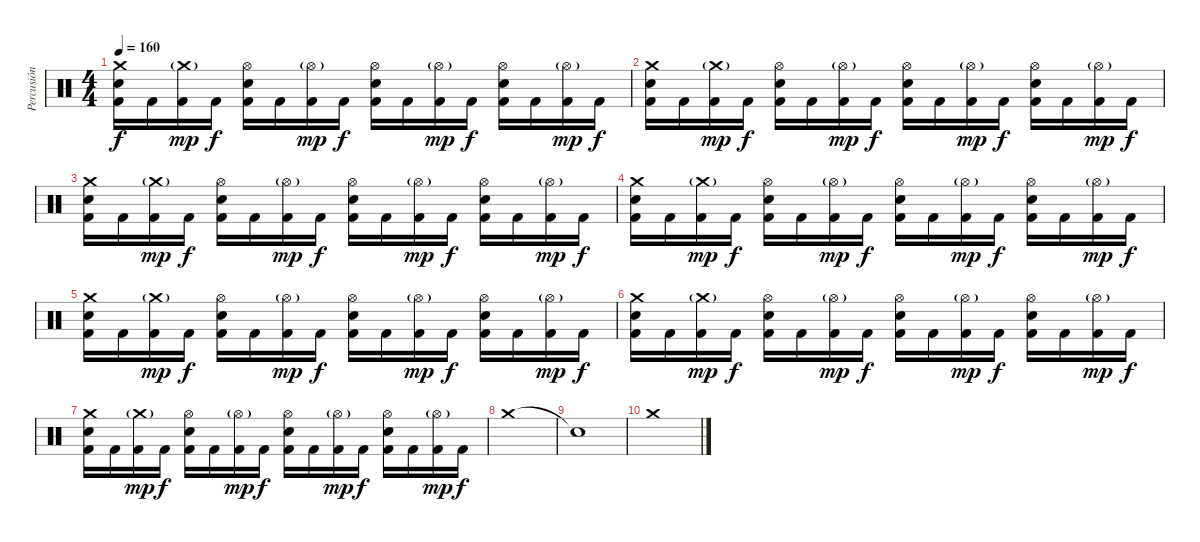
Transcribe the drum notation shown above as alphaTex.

\track ("Percusión" "Percusión") {instrument percussion}
\staff {score}
\articulation defaults
\ts (4 4)
\tempo 160
\clef neutral
\ks c
("Crash medium (hit)" "Electric Snare (hit)" "Kick (hit) 2").16{dy f} "Kick (hit) 2".16 ("Crash medium (hit)"{g} "Kick (hit) 2").16{dy mp} "Kick (hit) 2".16{dy f} ("Hi-Hat (open)" "Electric Snare (hit)" "Kick (hit) 2").16 "Kick (hit) 2".16 ("Hi-Hat (open)"{g} "Kick (hit) 2").16{dy mp} "Kick (hit) 2".16{dy f} ("Hi-Hat (open)" "Electric Snare (hit)" "Kick (hit) 2").16 "Kick (hit) 2".16 ("Hi-Hat (open)"{g} "Kick (hit) 2").16{dy mp} "Kick (hit) 2".16{dy f} ("Hi-Hat (open)" "Electric Snare (hit)" "Kick (hit) 2").16 "Kick (hit) 2".16 ("Hi-Hat (open)"{g} "Kick (hit) 2").16{dy mp} "Kick (hit) 2".16{dy f} |
("Crash medium (hit)" "Electric Snare (hit)" "Kick (hit) 2").16 "Kick (hit) 2".16 ("Crash medium (hit)"{g} "Kick (hit) 2").16{dy mp} "Kick (hit) 2".16{dy f} ("Hi-Hat (open)" "Electric Snare (hit)" "Kick (hit) 2").16 "Kick (hit) 2".16 ("Hi-Hat (open)"{g} "Kick (hit) 2").16{dy mp} "Kick (hit) 2".16{dy f} ("Hi-Hat (open)" "Electric Snare (hit)" "Kick (hit) 2").16 "Kick (hit) 2".16 ("Hi-Hat (open)"{g} "Kick (hit) 2").16{dy mp} "Kick (hit) 2".16{dy f} ("Hi-Hat (open)" "Electric Snare (hit)" "Kick (hit) 2").16 "Kick (hit) 2".16 ("Hi-Hat (open)"{g} "Kick (hit) 2").16{dy mp} "Kick (hit) 2".16{dy f} |
("Crash medium (hit)" "Electric Snare (hit)" "Kick (hit) 2").16 "Kick (hit) 2".16 ("Crash medium (hit)"{g} "Kick (hit) 2").16{dy mp} "Kick (hit) 2".16{dy f} ("Hi-Hat (open)" "Electric Snare (hit)" "Kick (hit) 2").16 "Kick (hit) 2".16 ("Hi-Hat (open)"{g} "Kick (hit) 2").16{dy mp} "Kick (hit) 2".16{dy f} ("Hi-Hat (open)" "Electric Snare (hit)" "Kick (hit) 2").16 "Kick (hit) 2".16 ("Hi-Hat (open)"{g} "Kick (hit) 2").16{dy mp} "Kick (hit) 2".16{dy f} ("Hi-Hat (open)" "Electric Snare (hit)" "Kick (hit) 2").16 "Kick (hit) 2".16 ("Hi-Hat (open)"{g} "Kick (hit) 2").16{dy mp} "Kick (hit) 2".16{dy f} |
("Crash medium (hit)" "Electric Snare (hit)" "Kick (hit) 2").16 "Kick (hit) 2".16 ("Crash medium (hit)"{g} "Kick (hit) 2").16{dy mp} "Kick (hit) 2".16{dy f} ("Hi-Hat (open)" "Electric Snare (hit)" "Kick (hit) 2").16 "Kick (hit) 2".16 ("Hi-Hat (open)"{g} "Kick (hit) 2").16{dy mp} "Kick (hit) 2".16{dy f} ("Hi-Hat (open)" "Electric Snare (hit)" "Kick (hit) 2").16 "Kick (hit) 2".16 ("Hi-Hat (open)"{g} "Kick (hit) 2").16{dy mp} "Kick (hit) 2".16{dy f} ("Hi-Hat (open)" "Electric Snare (hit)" "Kick (hit) 2").16 "Kick (hit) 2".16 ("Hi-Hat (open)"{g} "Kick (hit) 2").16{dy mp} "Kick (hit) 2".16{dy f} |
("Crash medium (hit)" "Electric Snare (hit)" "Kick (hit) 2").16 "Kick (hit) 2".16 ("Crash medium (hit)"{g} "Kick (hit) 2").16{dy mp} "Kick (hit) 2".16{dy f} ("Hi-Hat (open)" "Electric Snare (hit)" "Kick (hit) 2").16 "Kick (hit) 2".16 ("Hi-Hat (open)"{g} "Kick (hit) 2").16{dy mp} "Kick (hit) 2".16{dy f} ("Hi-Hat (open)" "Electric Snare (hit)" "Kick (hit) 2").16 "Kick (hit) 2".16 ("Hi-Hat (open)"{g} "Kick (hit) 2").16{dy mp} "Kick (hit) 2".16{dy f} ("Hi-Hat (open)" "Electric Snare (hit)" "Kick (hit) 2").16 "Kick (hit) 2".16 ("Hi-Hat (open)"{g} "Kick (hit) 2").16{dy mp} "Kick (hit) 2".16{dy f} |
("Crash medium (hit)" "Electric Snare (hit)" "Kick (hit) 2").16 "Kick (hit) 2".16 ("Crash medium (hit)"{g} "Kick (hit) 2").16{dy mp} "Kick (hit) 2".16{dy f} ("Hi-Hat (open)" "Electric Snare (hit)" "Kick (hit) 2").16 "Kick (hit) 2".16 ("Hi-Hat (open)"{g} "Kick (hit) 2").16{dy mp} "Kick (hit) 2".16{dy f} ("Hi-Hat (open)" "Electric Snare (hit)" "Kick (hit) 2").16 "Kick (hit) 2".16 ("Hi-Hat (open)"{g} "Kick (hit) 2").16{dy mp} "Kick (hit) 2".16{dy f} ("Hi-Hat (open)" "Electric Snare (hit)" "Kick (hit) 2").16 "Kick (hit) 2".16 ("Hi-Hat (open)"{g} "Kick (hit) 2").16{dy mp} "Kick (hit) 2".16{dy f} |
("Crash medium (hit)" "Electric Snare (hit)" "Kick (hit) 2").16 "Kick (hit) 2".16 ("Crash medium (hit)"{g} "Kick (hit) 2").16{dy mp} "Kick (hit) 2".16{dy f} ("Hi-Hat (open)" "Electric Snare (hit)" "Kick (hit) 2").16 "Kick (hit) 2".16 ("Hi-Hat (open)"{g} "Kick (hit) 2").16{dy mp} "Kick (hit) 2".16{dy f} ("Hi-Hat (open)" "Electric Snare (hit)" "Kick (hit) 2").16 "Kick (hit) 2".16 ("Hi-Hat (open)"{g} "Kick (hit) 2").16{dy mp} "Kick (hit) 2".16{dy f} ("Hi-Hat (open)" "Electric Snare (hit)" "Kick (hit) 2").16 "Kick (hit) 2".16 ("Hi-Hat (open)"{g} "Kick (hit) 2").16{dy mp} "Kick (hit) 2".16{dy f} |
"Crash medium (hit)".1 |
"Snare (hit)"{t}.1 |
"Crash medium (hit)".1
